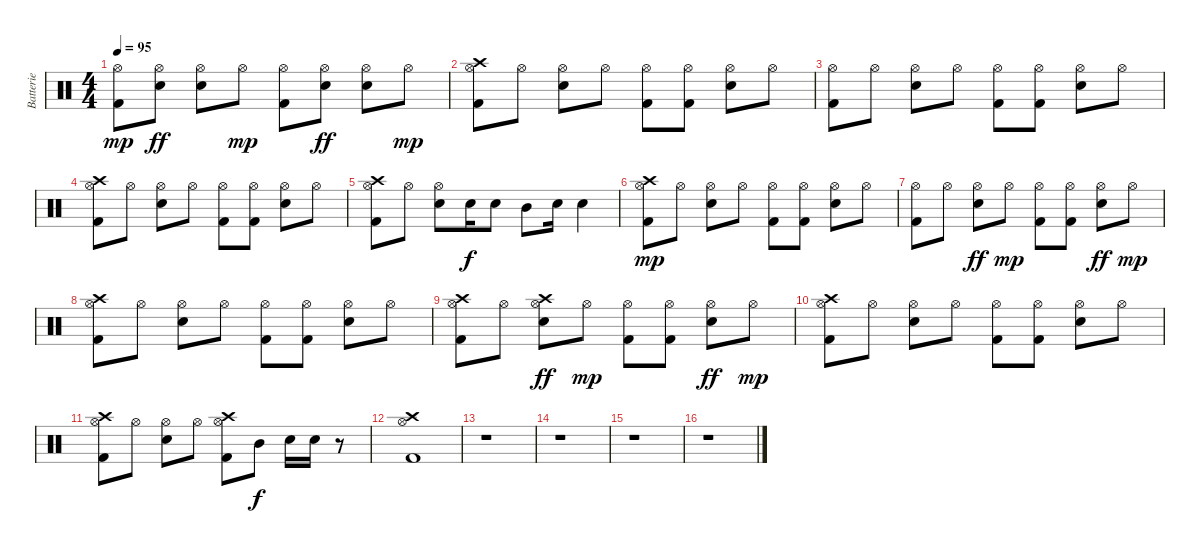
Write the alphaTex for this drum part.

\track ("Batterie" "Batterie") {instrument percussion}
\staff {score}
\articulation defaults
\ts (4 4)
\tempo 95
\clef neutral
\ks c
("Hi-Hat (open)" "Kick (hit) 2").8{dy mp} ("Hi-Hat (open)" "Electric Snare (hit)").8{dy ff} ("Hi-Hat (open)" "Electric Snare (hit)").8 "Hi-Hat (open)".8{dy mp} ("Hi-Hat (open)" "Kick (hit) 2").8 ("Hi-Hat (open)" "Electric Snare (hit)").8{dy ff} ("Hi-Hat (open)" "Electric Snare (hit)").8 "Hi-Hat (open)".8{dy mp} |
("Hi-Hat (open)" "Kick (hit) 2" "Crash high (hit)").8 "Hi-Hat (open)".8 ("Hi-Hat (open)" "Electric Snare (hit)").8 "Hi-Hat (open)".8 ("Hi-Hat (open)" "Kick (hit) 2").8 ("Hi-Hat (open)" "Kick (hit) 2").8 ("Hi-Hat (open)" "Electric Snare (hit)").8 "Hi-Hat (open)".8 |
("Hi-Hat (open)" "Kick (hit) 2").8 "Hi-Hat (open)".8 ("Hi-Hat (open)" "Electric Snare (hit)").8 "Hi-Hat (open)".8 ("Hi-Hat (open)" "Kick (hit) 2").8 ("Hi-Hat (open)" "Kick (hit) 2").8 ("Hi-Hat (open)" "Electric Snare (hit)").8 "Hi-Hat (open)".8 |
("Hi-Hat (open)" "Kick (hit) 2" "Crash high (hit)").8 "Hi-Hat (open)".8 ("Hi-Hat (open)" "Electric Snare (hit)").8 "Hi-Hat (open)".8 ("Hi-Hat (open)" "Kick (hit) 2").8 ("Hi-Hat (open)" "Kick (hit) 2").8 ("Hi-Hat (open)" "Electric Snare (hit)").8 "Hi-Hat (open)".8 |
("Hi-Hat (open)" "Kick (hit) 2" "Crash high (hit)").8 "Hi-Hat (open)".8 ("Hi-Hat (open)" "Electric Snare (hit)").8 "Electric Snare (hit)".16{dy f} "Electric Snare (hit)".8 "Mid Tom (hit)".8 "Electric Snare (hit)".16 "Electric Snare (hit)".4 |
("Hi-Hat (open)" "Kick (hit) 2" "Crash high (hit)").8{dy mp} "Hi-Hat (open)".8 ("Hi-Hat (open)" "Electric Snare (hit)").8 "Hi-Hat (open)".8 ("Hi-Hat (open)" "Kick (hit) 2").8 ("Hi-Hat (open)" "Kick (hit) 2").8 ("Hi-Hat (open)" "Electric Snare (hit)").8 "Hi-Hat (open)".8 |
("Hi-Hat (open)" "Kick (hit) 2").8 "Hi-Hat (open)".8 ("Hi-Hat (open)" "Electric Snare (hit)").8{dy ff} "Hi-Hat (open)".8{dy mp} ("Hi-Hat (open)" "Kick (hit) 2").8 ("Hi-Hat (open)" "Kick (hit) 2").8 ("Hi-Hat (open)" "Electric Snare (hit)").8{dy ff} "Hi-Hat (open)".8{dy mp} |
("Hi-Hat (open)" "Kick (hit) 2" "Crash high (hit)").8 "Hi-Hat (open)".8 ("Hi-Hat (open)" "Electric Snare (hit)").8 "Hi-Hat (open)".8 ("Hi-Hat (open)" "Kick (hit) 2").8 ("Hi-Hat (open)" "Kick (hit) 2").8 ("Hi-Hat (open)" "Electric Snare (hit)").8 "Hi-Hat (open)".8 |
("Hi-Hat (open)" "Kick (hit) 2" "Crash high (hit)").8 "Hi-Hat (open)".8 ("Hi-Hat (open)" "Electric Snare (hit)" "Crash high (hit)").8{dy ff} "Hi-Hat (open)".8{dy mp} ("Hi-Hat (open)" "Kick (hit) 2").8 ("Hi-Hat (open)" "Kick (hit) 2").8 ("Hi-Hat (open)" "Electric Snare (hit)").8{dy ff} "Hi-Hat (open)".8{dy mp} |
("Hi-Hat (open)" "Kick (hit) 2" "Crash high (hit)").8 "Hi-Hat (open)".8 ("Hi-Hat (open)" "Electric Snare (hit)").8 "Hi-Hat (open)".8 ("Hi-Hat (open)" "Kick (hit) 2").8 ("Hi-Hat (open)" "Kick (hit) 2").8 ("Hi-Hat (open)" "Electric Snare (hit)").8 "Hi-Hat (open)".8 |
("Hi-Hat (open)" "Kick (hit) 2" "Crash high (hit)").8 "Hi-Hat (open)".8 ("Hi-Hat (open)" "Electric Snare (hit)").8 "Hi-Hat (open)".8 ("Hi-Hat (open)" "Kick (hit) 2" "Crash high (hit)").8 "Mid Tom (hit)".8{dy f} "Electric Snare (hit)".16 "Electric Snare (hit)".16 r.8 |
("Crash high (hit)" "Hi-Hat (open)" "Kick (hit) 2").1 |
r.1 |
r.1 |
r.1 |
r.1
